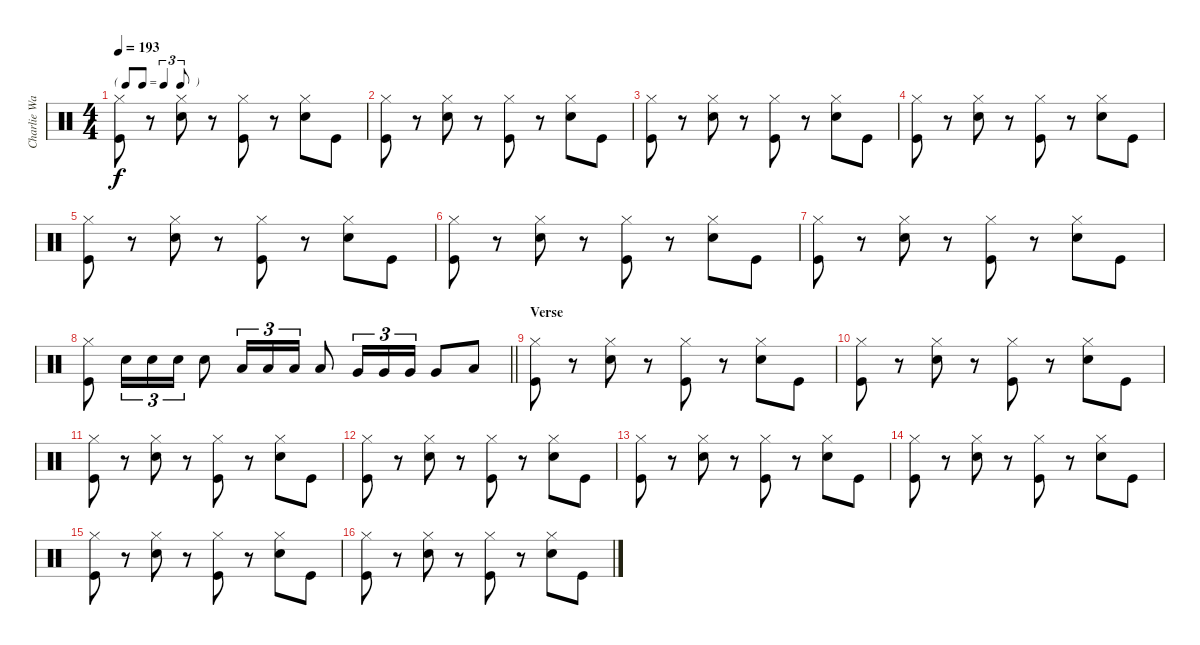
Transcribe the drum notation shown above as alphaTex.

\track ("Charlie Watts" "Charlie Wa") {instrument percussion}
\staff {score}
\articulation defaults
\ts (4 4)
\tf triplet8th
\tempo 193
\clef neutral
\ks c
("Hi-Hat (closed)" "Kick (hit)").8{dy f} r.8 ("Hi-Hat (closed)" "Snare (hit) 2").8 r.8 ("Hi-Hat (closed)" "Kick (hit)").8 r.8 ("Hi-Hat (closed)" "Snare (hit) 2").8 "Kick (hit)".8 |
("Hi-Hat (closed)" "Kick (hit)").8 r.8 ("Hi-Hat (closed)" "Snare (hit) 2").8 r.8 ("Hi-Hat (closed)" "Kick (hit)").8 r.8 ("Hi-Hat (closed)" "Snare (hit) 2").8 "Kick (hit)".8 |
("Hi-Hat (closed)" "Kick (hit)").8 r.8 ("Hi-Hat (closed)" "Snare (hit) 2").8 r.8 ("Hi-Hat (closed)" "Kick (hit)").8 r.8 ("Hi-Hat (closed)" "Snare (hit) 2").8 "Kick (hit)".8 |
("Hi-Hat (closed)" "Kick (hit)").8 r.8 ("Hi-Hat (closed)" "Snare (hit) 2").8 r.8 ("Hi-Hat (closed)" "Kick (hit)").8 r.8 ("Hi-Hat (closed)" "Snare (hit) 2").8 "Kick (hit)".8 |
("Hi-Hat (closed)" "Kick (hit)").8 r.8 ("Hi-Hat (closed)" "Snare (hit) 2").8 r.8 ("Hi-Hat (closed)" "Kick (hit)").8 r.8 ("Hi-Hat (closed)" "Snare (hit) 2").8 "Kick (hit)".8 |
("Hi-Hat (closed)" "Kick (hit)").8 r.8 ("Hi-Hat (closed)" "Snare (hit) 2").8 r.8 ("Hi-Hat (closed)" "Kick (hit)").8 r.8 ("Hi-Hat (closed)" "Snare (hit) 2").8 "Kick (hit)".8 |
("Hi-Hat (closed)" "Kick (hit)").8 r.8 ("Hi-Hat (closed)" "Snare (hit) 2").8 r.8 ("Hi-Hat (closed)" "Kick (hit)").8 r.8 ("Hi-Hat (closed)" "Snare (hit) 2").8 "Kick (hit)".8 |
\barLineRight lightlight
("Hi-Hat (closed)" "Kick (hit)").8 "Snare (hit) 2".16{tu (3 2)} "Snare (hit) 2".16{tu (3 2)} "Snare (hit) 2".16{tu (3 2)} "Snare (hit) 2".8 "Low Tom (hit)".16{tu (3 2)} "Low Tom (hit)".16{tu (3 2)} "Low Tom (hit)".16{tu (3 2)} "Low Tom (hit)".8 "Very Low Tom (hit)".16{tu (3 2)} "Very Low Tom (hit)".16{tu (3 2)} "Very Low Tom (hit)".16{tu (3 2)} "Very Low Tom (hit)".8 "Low Floor Tom (hit)".8 |
\section ("" "Verse")
("Hi-Hat (closed)" "Kick (hit)").8 r.8 ("Hi-Hat (closed)" "Snare (hit) 2").8 r.8 ("Hi-Hat (closed)" "Kick (hit)").8 r.8 ("Hi-Hat (closed)" "Snare (hit) 2").8 "Kick (hit)".8 |
("Hi-Hat (closed)" "Kick (hit)").8 r.8 ("Hi-Hat (closed)" "Snare (hit) 2").8 r.8 ("Hi-Hat (closed)" "Kick (hit)").8 r.8 ("Hi-Hat (closed)" "Snare (hit) 2").8 "Kick (hit)".8 |
("Hi-Hat (closed)" "Kick (hit)").8 r.8 ("Hi-Hat (closed)" "Snare (hit) 2").8 r.8 ("Hi-Hat (closed)" "Kick (hit)").8 r.8 ("Hi-Hat (closed)" "Snare (hit) 2").8 "Kick (hit)".8 |
("Hi-Hat (closed)" "Kick (hit)").8 r.8 ("Hi-Hat (closed)" "Snare (hit) 2").8 r.8 ("Hi-Hat (closed)" "Kick (hit)").8 r.8 ("Hi-Hat (closed)" "Snare (hit) 2").8 "Kick (hit)".8 |
("Hi-Hat (closed)" "Kick (hit)").8 r.8 ("Hi-Hat (closed)" "Snare (hit) 2").8 r.8 ("Hi-Hat (closed)" "Kick (hit)").8 r.8 ("Hi-Hat (closed)" "Snare (hit) 2").8 "Kick (hit)".8 |
("Hi-Hat (closed)" "Kick (hit)").8 r.8 ("Hi-Hat (closed)" "Snare (hit) 2").8 r.8 ("Hi-Hat (closed)" "Kick (hit)").8 r.8 ("Hi-Hat (closed)" "Snare (hit) 2").8 "Kick (hit)".8 |
("Hi-Hat (closed)" "Kick (hit)").8 r.8 ("Hi-Hat (closed)" "Snare (hit) 2").8 r.8 ("Hi-Hat (closed)" "Kick (hit)").8 r.8 ("Hi-Hat (closed)" "Snare (hit) 2").8 "Kick (hit)".8 |
("Hi-Hat (closed)" "Kick (hit)").8 r.8 ("Hi-Hat (closed)" "Snare (hit) 2").8 r.8 ("Hi-Hat (closed)" "Kick (hit)").8 r.8 ("Hi-Hat (closed)" "Snare (hit) 2").8 "Kick (hit)".8
